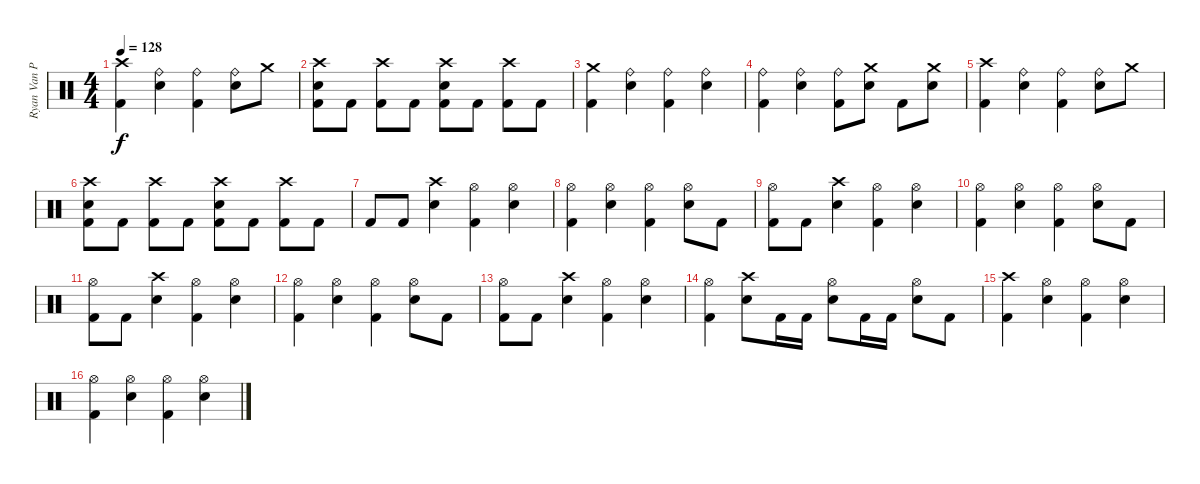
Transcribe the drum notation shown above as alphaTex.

\track ("Ryan Van Poederooyen" "Ryan Van P") {instrument percussion}
\staff {score}
\articulation defaults
\ts (4 4)
\tempo 128
\clef neutral
\ks c
("Crash high (hit)" "Kick (hit) 2").4{dy f} ("Ride (bell)" "Electric Snare (hit)").4 ("Ride (bell)" "Kick (hit) 2").4 ("Ride (bell)" "Electric Snare (hit)").8 "Crash medium (hit)".8 |
("Crash high (hit)" "Electric Snare (hit)" "Kick (hit) 2").8 "Kick (hit) 2".8 ("Crash high (hit)" "Kick (hit) 2").8 "Kick (hit) 2".8 ("Crash high (hit)" "Electric Snare (hit)" "Kick (hit) 2").8 "Kick (hit) 2".8 ("Crash high (hit)" "Kick (hit) 2").8 "Kick (hit) 2".8 |
("Crash medium (hit)" "Kick (hit) 2").4 ("Ride (bell)" "Electric Snare (hit)").4 ("Ride (bell)" "Kick (hit) 2").4 ("Ride (bell)" "Electric Snare (hit)").4 |
("Ride (bell)" "Kick (hit) 2").4 ("Ride (bell)" "Electric Snare (hit)").4 ("Ride (bell)" "Kick (hit) 2").8 ("Crash medium (hit)" "Electric Snare (hit)").8 "Kick (hit) 2".8 ("Crash medium (hit)" "Electric Snare (hit)").8 |
("Crash high (hit)" "Kick (hit) 2").4 ("Ride (bell)" "Electric Snare (hit)").4 ("Ride (bell)" "Kick (hit) 2").4 ("Ride (bell)" "Electric Snare (hit)").8 "Crash medium (hit)".8 |
("Crash high (hit)" "Electric Snare (hit)" "Kick (hit) 2").8 "Kick (hit) 2".8 ("Crash high (hit)" "Kick (hit) 2").8 "Kick (hit) 2".8 ("Crash high (hit)" "Electric Snare (hit)" "Kick (hit) 2").8 "Kick (hit) 2".8 ("Crash high (hit)" "Kick (hit) 2").8 "Kick (hit) 2".8 |
"Kick (hit) 2".8 "Kick (hit) 2".8 ("Crash high (hit)" "Electric Snare (hit)").4 ("Hi-Hat (open)" "Kick (hit) 2").4 ("Hi-Hat (open)" "Electric Snare (hit)").4 |
("Hi-Hat (open)" "Kick (hit) 2").4 ("Hi-Hat (open)" "Electric Snare (hit)").4 ("Hi-Hat (open)" "Kick (hit) 2").4 ("Hi-Hat (open)" "Electric Snare (hit)").8 "Kick (hit) 2".8 |
("Hi-Hat (open)" "Kick (hit) 2").8 "Kick (hit) 2".8 ("Crash high (hit)" "Electric Snare (hit)").4 ("Hi-Hat (open)" "Kick (hit) 2").4 ("Hi-Hat (open)" "Electric Snare (hit)").4 |
("Hi-Hat (open)" "Kick (hit) 2").4 ("Hi-Hat (open)" "Electric Snare (hit)").4 ("Hi-Hat (open)" "Kick (hit) 2").4 ("Hi-Hat (open)" "Electric Snare (hit)").8 "Kick (hit) 2".8 |
("Hi-Hat (open)" "Kick (hit) 2").8 "Kick (hit) 2".8 ("Crash high (hit)" "Electric Snare (hit)").4 ("Hi-Hat (open)" "Kick (hit) 2").4 ("Hi-Hat (open)" "Electric Snare (hit)").4 |
("Hi-Hat (open)" "Kick (hit) 2").4 ("Hi-Hat (open)" "Electric Snare (hit)").4 ("Hi-Hat (open)" "Kick (hit) 2").4 ("Hi-Hat (open)" "Electric Snare (hit)").8 "Kick (hit) 2".8 |
("Hi-Hat (open)" "Kick (hit) 2").8 "Kick (hit) 2".8 ("Crash high (hit)" "Electric Snare (hit)").4 ("Hi-Hat (open)" "Kick (hit) 2").4 ("Hi-Hat (open)" "Electric Snare (hit)").4 |
("Hi-Hat (open)" "Kick (hit) 2").4 ("Crash high (hit)" "Electric Snare (hit)").8 "Kick (hit) 2".16 "Kick (hit) 2".16 ("Hi-Hat (open)" "Electric Snare (hit)").8 "Kick (hit) 2".16 "Kick (hit) 2".16 ("Hi-Hat (open)" "Electric Snare (hit)").8 "Kick (hit) 2".8 |
("Crash high (hit)" "Kick (hit) 2").4 ("Hi-Hat (open)" "Electric Snare (hit)").4 ("Hi-Hat (open)" "Kick (hit) 2").4 ("Hi-Hat (open)" "Electric Snare (hit)").4 |
("Hi-Hat (open)" "Kick (hit) 2").4 ("Hi-Hat (open)" "Electric Snare (hit)").4 ("Hi-Hat (open)" "Kick (hit) 2").4 ("Hi-Hat (open)" "Electric Snare (hit)").4
